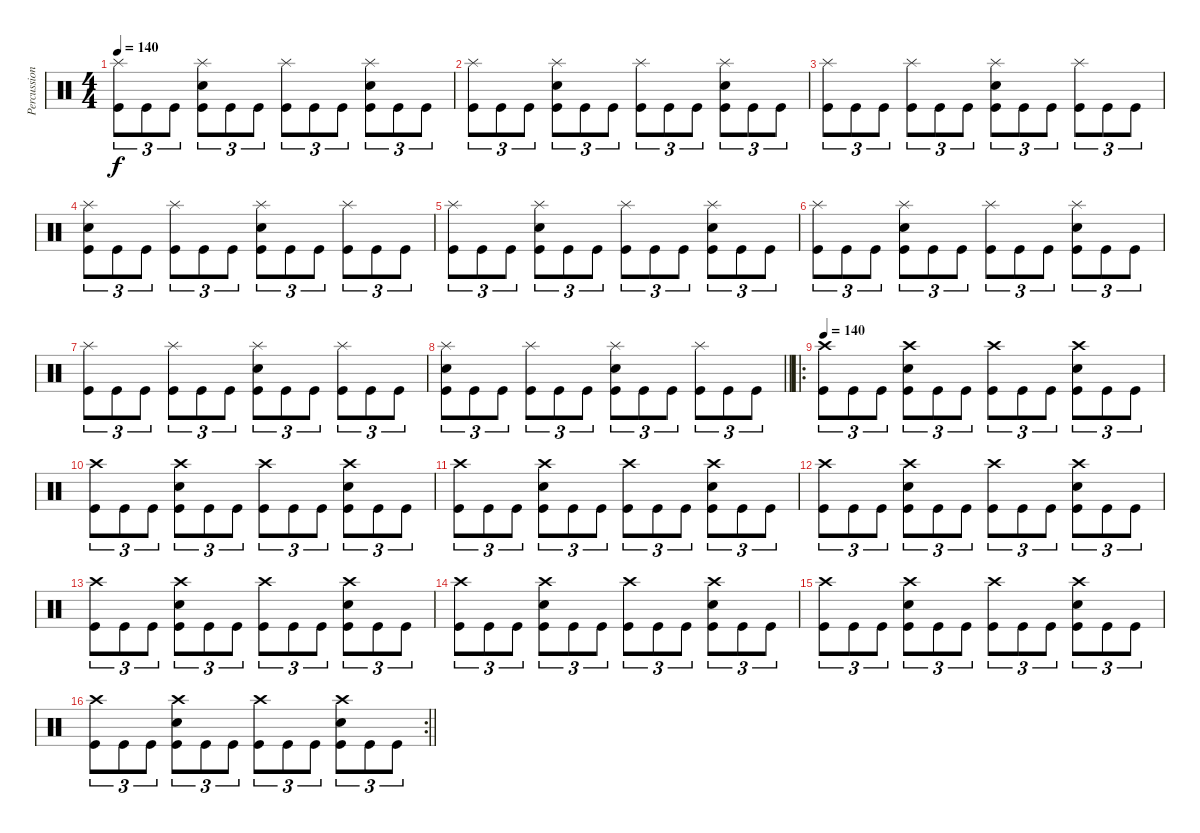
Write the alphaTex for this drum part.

\track ("Percussion" "Percussion") {instrument percussion}
\staff
\articulation defaults
\ts (4 4)
\tempo 140
\clef neutral
\ks c
("Splash (hit)" "Kick (hit)").8{tu (3 2) dy f} "Kick (hit)".8{tu (3 2)} "Kick (hit)".8{tu (3 2)} ("Splash (hit)" "Snare (hit) 2" "Kick (hit)").8{tu (3 2)} "Kick (hit)".8{tu (3 2)} "Kick (hit)".8{tu (3 2)} ("Splash (hit)" "Kick (hit)").8{tu (3 2)} "Kick (hit)".8{tu (3 2)} "Kick (hit)".8{tu (3 2)} ("Splash (hit)" "Snare (hit) 2" "Kick (hit)").8{tu (3 2)} "Kick (hit)".8{tu (3 2)} "Kick (hit)".8{tu (3 2)} |
("Splash (hit)" "Kick (hit)").8{tu (3 2)} "Kick (hit)".8{tu (3 2)} "Kick (hit)".8{tu (3 2)} ("Splash (hit)" "Snare (hit) 2" "Kick (hit)").8{tu (3 2)} "Kick (hit)".8{tu (3 2)} "Kick (hit)".8{tu (3 2)} ("Splash (hit)" "Kick (hit)").8{tu (3 2)} "Kick (hit)".8{tu (3 2)} "Kick (hit)".8{tu (3 2)} ("Splash (hit)" "Snare (hit) 2" "Kick (hit)").8{tu (3 2)} "Kick (hit)".8{tu (3 2)} "Kick (hit)".8{tu (3 2)} |
("Splash (hit)" "Kick (hit)").8{tu (3 2)} "Kick (hit)".8{tu (3 2)} "Kick (hit)".8{tu (3 2)} ("Splash (hit)" "Kick (hit)").8{tu (3 2)} "Kick (hit)".8{tu (3 2)} "Kick (hit)".8{tu (3 2)} ("Splash (hit)" "Snare (hit) 2" "Kick (hit)").8{tu (3 2)} "Kick (hit)".8{tu (3 2)} "Kick (hit)".8{tu (3 2)} ("Splash (hit)" "Kick (hit)").8{tu (3 2)} "Kick (hit)".8{tu (3 2)} "Kick (hit)".8{tu (3 2)} |
("Splash (hit)" "Snare (hit) 2" "Kick (hit)").8{tu (3 2)} "Kick (hit)".8{tu (3 2)} "Kick (hit)".8{tu (3 2)} ("Splash (hit)" "Kick (hit)").8{tu (3 2)} "Kick (hit)".8{tu (3 2)} "Kick (hit)".8{tu (3 2)} ("Splash (hit)" "Snare (hit) 2" "Kick (hit)").8{tu (3 2)} "Kick (hit)".8{tu (3 2)} "Kick (hit)".8{tu (3 2)} ("Splash (hit)" "Kick (hit)").8{tu (3 2)} "Kick (hit)".8{tu (3 2)} "Kick (hit)".8{tu (3 2)} |
("Splash (hit)" "Kick (hit)").8{tu (3 2)} "Kick (hit)".8{tu (3 2)} "Kick (hit)".8{tu (3 2)} ("Splash (hit)" "Snare (hit) 2" "Kick (hit)").8{tu (3 2)} "Kick (hit)".8{tu (3 2)} "Kick (hit)".8{tu (3 2)} ("Splash (hit)" "Kick (hit)").8{tu (3 2)} "Kick (hit)".8{tu (3 2)} "Kick (hit)".8{tu (3 2)} ("Splash (hit)" "Snare (hit) 2" "Kick (hit)").8{tu (3 2)} "Kick (hit)".8{tu (3 2)} "Kick (hit)".8{tu (3 2)} |
("Splash (hit)" "Kick (hit)").8{tu (3 2)} "Kick (hit)".8{tu (3 2)} "Kick (hit)".8{tu (3 2)} ("Splash (hit)" "Snare (hit) 2" "Kick (hit)").8{tu (3 2)} "Kick (hit)".8{tu (3 2)} "Kick (hit)".8{tu (3 2)} ("Splash (hit)" "Kick (hit)").8{tu (3 2)} "Kick (hit)".8{tu (3 2)} "Kick (hit)".8{tu (3 2)} ("Splash (hit)" "Snare (hit) 2" "Kick (hit)").8{tu (3 2)} "Kick (hit)".8{tu (3 2)} "Kick (hit)".8{tu (3 2)} |
("Splash (hit)" "Kick (hit)").8{tu (3 2)} "Kick (hit)".8{tu (3 2)} "Kick (hit)".8{tu (3 2)} ("Splash (hit)" "Kick (hit)").8{tu (3 2)} "Kick (hit)".8{tu (3 2)} "Kick (hit)".8{tu (3 2)} ("Splash (hit)" "Snare (hit) 2" "Kick (hit)").8{tu (3 2)} "Kick (hit)".8{tu (3 2)} "Kick (hit)".8{tu (3 2)} ("Splash (hit)" "Kick (hit)").8{tu (3 2)} "Kick (hit)".8{tu (3 2)} "Kick (hit)".8{tu (3 2)} |
\barLineRight lightlight
("Splash (hit)" "Snare (hit) 2" "Kick (hit)").8{tu (3 2)} "Kick (hit)".8{tu (3 2)} "Kick (hit)".8{tu (3 2)} ("Splash (hit)" "Kick (hit)").8{tu (3 2)} "Kick (hit)".8{tu (3 2)} "Kick (hit)".8{tu (3 2)} ("Splash (hit)" "Snare (hit) 2" "Kick (hit)").8{tu (3 2)} "Kick (hit)".8{tu (3 2)} "Kick (hit)".8{tu (3 2)} ("Splash (hit)" "Kick (hit)").8{tu (3 2)} "Kick (hit)".8{tu (3 2)} "Kick (hit)".8{tu (3 2)} |
\ro
\tempo 140
("Crash high (hit)" "Kick (hit)").8{tu (3 2)} "Kick (hit)".8{tu (3 2)} "Kick (hit)".8{tu (3 2)} ("Crash high (hit)" "Snare (hit) 2" "Kick (hit)").8{tu (3 2)} "Kick (hit)".8{tu (3 2)} "Kick (hit)".8{tu (3 2)} ("Crash high (hit)" "Kick (hit)").8{tu (3 2)} "Kick (hit)".8{tu (3 2)} "Kick (hit)".8{tu (3 2)} ("Crash high (hit)" "Snare (hit) 2" "Kick (hit)").8{tu (3 2)} "Kick (hit)".8{tu (3 2)} "Kick (hit)".8{tu (3 2)} |
("Crash high (hit)" "Kick (hit)").8{tu (3 2)} "Kick (hit)".8{tu (3 2)} "Kick (hit)".8{tu (3 2)} ("Crash high (hit)" "Snare (hit) 2" "Kick (hit)").8{tu (3 2)} "Kick (hit)".8{tu (3 2)} "Kick (hit)".8{tu (3 2)} ("Crash high (hit)" "Kick (hit)").8{tu (3 2)} "Kick (hit)".8{tu (3 2)} "Kick (hit)".8{tu (3 2)} ("Crash high (hit)" "Snare (hit) 2" "Kick (hit)").8{tu (3 2)} "Kick (hit)".8{tu (3 2)} "Kick (hit)".8{tu (3 2)} |
("Crash high (hit)" "Kick (hit)").8{tu (3 2)} "Kick (hit)".8{tu (3 2)} "Kick (hit)".8{tu (3 2)} ("Crash high (hit)" "Snare (hit) 2" "Kick (hit)").8{tu (3 2)} "Kick (hit)".8{tu (3 2)} "Kick (hit)".8{tu (3 2)} ("Crash high (hit)" "Kick (hit)").8{tu (3 2)} "Kick (hit)".8{tu (3 2)} "Kick (hit)".8{tu (3 2)} ("Crash high (hit)" "Snare (hit) 2" "Kick (hit)").8{tu (3 2)} "Kick (hit)".8{tu (3 2)} "Kick (hit)".8{tu (3 2)} |
("Crash high (hit)" "Kick (hit)").8{tu (3 2)} "Kick (hit)".8{tu (3 2)} "Kick (hit)".8{tu (3 2)} ("Crash high (hit)" "Snare (hit) 2" "Kick (hit)").8{tu (3 2)} "Kick (hit)".8{tu (3 2)} "Kick (hit)".8{tu (3 2)} ("Crash high (hit)" "Kick (hit)").8{tu (3 2)} "Kick (hit)".8{tu (3 2)} "Kick (hit)".8{tu (3 2)} ("Crash high (hit)" "Snare (hit) 2" "Kick (hit)").8{tu (3 2)} "Kick (hit)".8{tu (3 2)} "Kick (hit)".8{tu (3 2)} |
("Crash high (hit)" "Kick (hit)").8{tu (3 2)} "Kick (hit)".8{tu (3 2)} "Kick (hit)".8{tu (3 2)} ("Crash high (hit)" "Snare (hit) 2" "Kick (hit)").8{tu (3 2)} "Kick (hit)".8{tu (3 2)} "Kick (hit)".8{tu (3 2)} ("Crash high (hit)" "Kick (hit)").8{tu (3 2)} "Kick (hit)".8{tu (3 2)} "Kick (hit)".8{tu (3 2)} ("Crash high (hit)" "Snare (hit) 2" "Kick (hit)").8{tu (3 2)} "Kick (hit)".8{tu (3 2)} "Kick (hit)".8{tu (3 2)} |
("Crash high (hit)" "Kick (hit)").8{tu (3 2)} "Kick (hit)".8{tu (3 2)} "Kick (hit)".8{tu (3 2)} ("Crash high (hit)" "Snare (hit) 2" "Kick (hit)").8{tu (3 2)} "Kick (hit)".8{tu (3 2)} "Kick (hit)".8{tu (3 2)} ("Crash high (hit)" "Kick (hit)").8{tu (3 2)} "Kick (hit)".8{tu (3 2)} "Kick (hit)".8{tu (3 2)} ("Crash high (hit)" "Snare (hit) 2" "Kick (hit)").8{tu (3 2)} "Kick (hit)".8{tu (3 2)} "Kick (hit)".8{tu (3 2)} |
("Crash high (hit)" "Kick (hit)").8{tu (3 2)} "Kick (hit)".8{tu (3 2)} "Kick (hit)".8{tu (3 2)} ("Crash high (hit)" "Snare (hit) 2" "Kick (hit)").8{tu (3 2)} "Kick (hit)".8{tu (3 2)} "Kick (hit)".8{tu (3 2)} ("Crash high (hit)" "Kick (hit)").8{tu (3 2)} "Kick (hit)".8{tu (3 2)} "Kick (hit)".8{tu (3 2)} ("Crash high (hit)" "Snare (hit) 2" "Kick (hit)").8{tu (3 2)} "Kick (hit)".8{tu (3 2)} "Kick (hit)".8{tu (3 2)} |
\rc 2
\barLineRight lightlight
("Crash high (hit)" "Kick (hit)").8{tu (3 2)} "Kick (hit)".8{tu (3 2)} "Kick (hit)".8{tu (3 2)} ("Crash high (hit)" "Snare (hit) 2" "Kick (hit)").8{tu (3 2)} "Kick (hit)".8{tu (3 2)} "Kick (hit)".8{tu (3 2)} ("Crash high (hit)" "Kick (hit)").8{tu (3 2)} "Kick (hit)".8{tu (3 2)} "Kick (hit)".8{tu (3 2)} ("Crash high (hit)" "Snare (hit) 2" "Kick (hit)").8{tu (3 2)} "Kick (hit)".8{tu (3 2)} "Kick (hit)".8{tu (3 2)}
